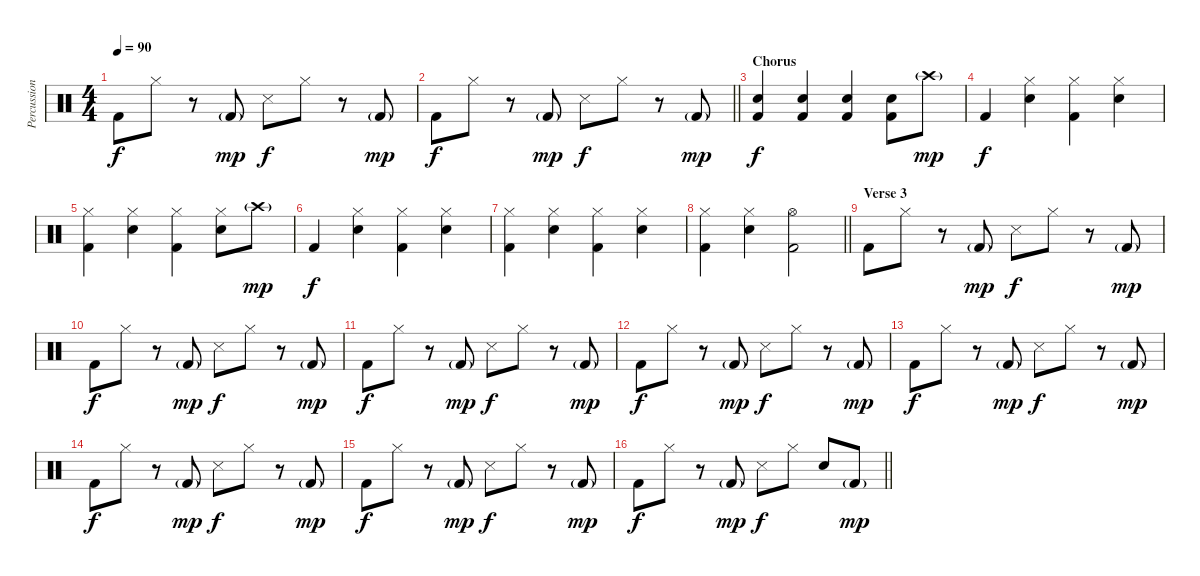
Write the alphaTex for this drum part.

\track ("Percussion" "Percussion") {instrument percussion}
\staff {score}
\articulation defaults
\ts (4 4)
\tempo 90
\clef neutral
\ks c "Kick (hit) 2".8{dy f} "Hi-Hat (closed)".8
r.8 "Kick (hit) 2"{g}.8{dy mp} "Snare (side stick) 3".8{dy f} "Hi-Hat (closed)".8 r.8 "Kick (hit) 2"{g}.8{dy mp} |
\barLineRight lightlight "Kick (hit) 2".8{dy f} "Hi-Hat (closed)".8
r.8 "Kick (hit) 2"{g}.8{dy mp} "Snare (side stick) 3".8{dy f} "Hi-Hat (closed)".8 r.8 "Kick (hit) 2"{g}.8{dy mp} |
\section ("" "Chorus")
("Snare (hit) 2" "Kick (hit) 2").4{dy f} ("Snare (hit) 2" "Kick (hit) 2").4 ("Snare (hit) 2" "Kick (hit) 2").4 ("Snare (hit) 2" "Kick (hit) 2").8 "Crash high (hit)"{g}.8{dy mp} |
"Kick (hit) 2".4{dy f} ("Hi-Hat (closed)" "Snare (hit) 2").4 ("Hi-Hat (closed)" "Kick (hit) 2").4 ("Hi-Hat (closed)" "Snare (hit) 2").4 |
("Hi-Hat (closed)" "Kick (hit) 2").4 ("Hi-Hat (closed)" "Snare (hit) 2").4 ("Hi-Hat (closed)" "Kick (hit) 2").4 ("Hi-Hat (closed)" "Snare (hit) 2").8 "Crash high (hit)"{g}.8{dy mp} |
"Kick (hit) 2".4{dy f} ("Hi-Hat (closed)" "Snare (hit) 2").4 ("Hi-Hat (closed)" "Kick (hit) 2").4 ("Hi-Hat (closed)" "Snare (hit) 2").4 |
("Hi-Hat (closed)" "Kick (hit) 2").4 ("Hi-Hat (closed)" "Snare (hit) 2").4 ("Hi-Hat (closed)" "Kick (hit) 2").4 ("Hi-Hat (closed)" "Snare (hit) 2").4 |
\barLineRight lightlight
("Hi-Hat (closed)" "Kick (hit) 2").4 ("Hi-Hat (closed)" "Snare (hit) 2").4 ("Hi-Hat (open)" "Kick (hit) 2").2 |
\section ("" "Verse 3")
"Kick (hit) 2".8 "Hi-Hat (closed)".8 r.8 "Kick (hit) 2"{g}.8{dy mp} "Snare (side stick) 3".8{dy f} "Hi-Hat (closed)".8 r.8 "Kick (hit) 2"{g}.8{dy mp} |
"Kick (hit) 2".8{dy f} "Hi-Hat (closed)".8 r.8 "Kick (hit) 2"{g}.8{dy mp} "Snare (side stick) 3".8{dy f} "Hi-Hat (closed)".8 r.8 "Kick (hit) 2"{g}.8{dy mp} |
"Kick (hit) 2".8{dy f} "Hi-Hat (closed)".8 r.8 "Kick (hit) 2"{g}.8{dy mp} "Snare (side stick) 3".8{dy f} "Hi-Hat (closed)".8 r.8 "Kick (hit) 2"{g}.8{dy mp} |
"Kick (hit) 2".8{dy f} "Hi-Hat (closed)".8 r.8 "Kick (hit) 2"{g}.8{dy mp} "Snare (side stick) 3".8{dy f} "Hi-Hat (closed)".8 r.8 "Kick (hit) 2"{g}.8{dy mp} |
"Kick (hit) 2".8{dy f} "Hi-Hat (closed)".8 r.8 "Kick (hit) 2"{g}.8{dy mp} "Snare (side stick) 3".8{dy f} "Hi-Hat (closed)".8 r.8 "Kick (hit) 2"{g}.8{dy mp} |
"Kick (hit) 2".8{dy f} "Hi-Hat (closed)".8 r.8 "Kick (hit) 2"{g}.8{dy mp} "Snare (side stick) 3".8{dy f} "Hi-Hat (closed)".8 r.8 "Kick (hit) 2"{g}.8{dy mp} |
"Kick (hit) 2".8{dy f} "Hi-Hat (closed)".8 r.8 "Kick (hit) 2"{g}.8{dy mp} "Snare (side stick) 3".8{dy f} "Hi-Hat (closed)".8 r.8 "Kick (hit) 2"{g}.8{dy mp} |
\barLineRight lightlight "Kick (hit) 2".8{dy f} "Hi-Hat (closed)".8
r.8 "Kick (hit) 2"{g}.8{dy mp} "Snare (side stick) 3".8{dy f} "Hi-Hat (closed)".8 "Snare (hit) 2".8 "Kick (hit) 2"{g}.8{dy mp}
